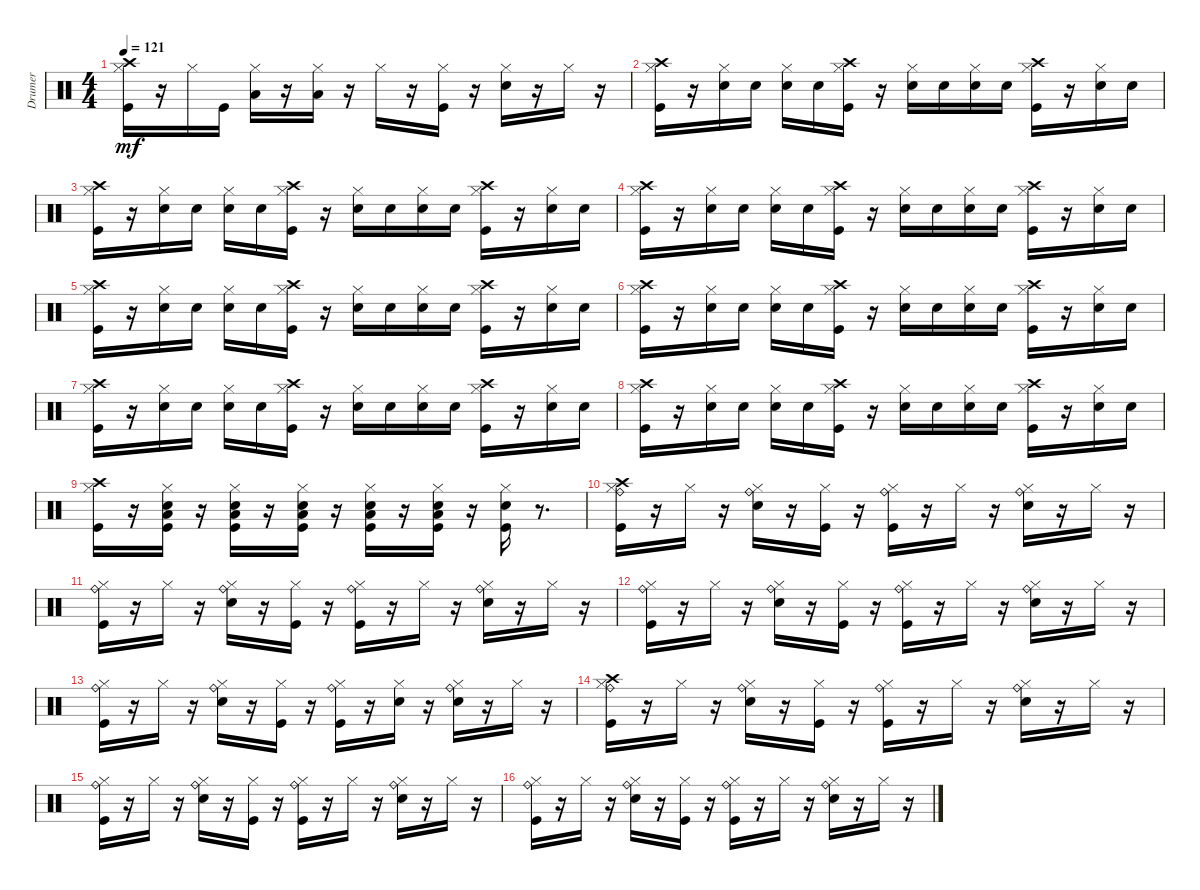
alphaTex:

\track ("Drumer" "Drumer") {instrument percussion}
\staff {score}
\articulation defaults
\ts (4 4)
\tempo 121
\clef neutral
\ks c
("Hi-Hat (closed)" "Kick (hit)" "Crash high (hit)").16{dy mf} r.16 "Hi-Hat (closed)".16 "Kick (hit)".16 ("Hi-Hat (closed)" "Low Tom (hit)").16 r.16 ("Hi-Hat (closed)" "Low Floor Tom (hit)").16 r.16 "Hi-Hat (closed)".16 r.16 ("Hi-Hat (closed)" "Kick (hit)").16 r.16 ("Hi-Hat (closed)" "Snare (hit) 2").16 r.16 "Hi-Hat (closed)".16 r.16 |
("Hi-Hat (closed)" "Kick (hit)" "Crash high (hit)").16 r.16 ("Hi-Hat (closed)" "Snare (hit) 2").16 "Snare (hit) 2".16 ("Hi-Hat (closed)" "Snare (hit) 2").16 "Snare (hit) 2".16 ("Hi-Hat (closed)" "Crash high (hit)" "Kick (hit)").16 r.16 ("Hi-Hat (closed)" "Snare (hit) 2").16 "Snare (hit) 2".16 ("Hi-Hat (closed)" "Snare (hit) 2").16 "Snare (hit) 2".16 ("Hi-Hat (closed)" "Kick (hit)" "Crash high (hit)").16 r.16 ("Hi-Hat (closed)" "Snare (hit) 2").16 "Snare (hit) 2".16 |
("Hi-Hat (closed)" "Kick (hit)" "Crash high (hit)").16 r.16 ("Hi-Hat (closed)" "Snare (hit) 2").16 "Snare (hit) 2".16 ("Hi-Hat (closed)" "Snare (hit) 2").16 "Snare (hit) 2".16 ("Hi-Hat (closed)" "Crash high (hit)" "Kick (hit)").16 r.16 ("Hi-Hat (closed)" "Snare (hit) 2").16 "Snare (hit) 2".16 ("Hi-Hat (closed)" "Snare (hit) 2").16 "Snare (hit) 2".16 ("Hi-Hat (closed)" "Kick (hit)" "Crash high (hit)").16 r.16 ("Hi-Hat (closed)" "Snare (hit) 2").16 "Snare (hit) 2".16 |
("Hi-Hat (closed)" "Crash high (hit)" "Kick (hit)").16 r.16 ("Hi-Hat (closed)" "Snare (hit) 2").16 "Snare (hit) 2".16 ("Hi-Hat (closed)" "Snare (hit) 2").16 "Snare (hit) 2".16 ("Hi-Hat (closed)" "Crash high (hit)" "Kick (hit)").16 r.16 ("Hi-Hat (closed)" "Snare (hit) 2").16 "Snare (hit) 2".16 ("Hi-Hat (closed)" "Snare (hit) 2").16 "Snare (hit) 2".16 ("Hi-Hat (closed)" "Kick (hit)" "Crash high (hit)").16 r.16 ("Hi-Hat (closed)" "Snare (hit) 2").16 "Snare (hit) 2".16 |
("Hi-Hat (closed)" "Kick (hit)" "Crash high (hit)").16 r.16 ("Hi-Hat (closed)" "Snare (hit) 2").16 "Snare (hit) 2".16 ("Hi-Hat (closed)" "Snare (hit) 2").16 "Snare (hit) 2".16 ("Hi-Hat (closed)" "Kick (hit)" "Crash high (hit)").16 r.16 ("Hi-Hat (closed)" "Snare (hit) 2").16 "Snare (hit) 2".16 ("Hi-Hat (closed)" "Snare (hit) 2").16 "Snare (hit) 2".16 ("Hi-Hat (closed)" "Crash high (hit)" "Kick (hit)").16 r.16 ("Hi-Hat (closed)" "Snare (hit) 2").16 "Snare (hit) 2".16 |
("Hi-Hat (closed)" "Kick (hit)" "Crash high (hit)").16 r.16 ("Hi-Hat (closed)" "Snare (hit) 2").16 "Snare (hit) 2".16 ("Hi-Hat (closed)" "Snare (hit) 2").16 "Snare (hit) 2".16 ("Hi-Hat (closed)" "Crash high (hit)" "Kick (hit)").16 r.16 ("Hi-Hat (closed)" "Snare (hit) 2").16 "Snare (hit) 2".16 ("Hi-Hat (closed)" "Snare (hit) 2").16 "Snare (hit) 2".16 ("Hi-Hat (closed)" "Kick (hit)" "Crash high (hit)").16 r.16 ("Hi-Hat (closed)" "Snare (hit) 2").16 "Snare (hit) 2".16 |
("Hi-Hat (closed)" "Kick (hit)" "Crash high (hit)").16 r.16 ("Hi-Hat (closed)" "Snare (hit) 2").16 "Snare (hit) 2".16 ("Hi-Hat (closed)" "Snare (hit) 2").16 "Snare (hit) 2".16 ("Hi-Hat (closed)" "Crash high (hit)" "Kick (hit)").16 r.16 ("Hi-Hat (closed)" "Snare (hit) 2").16 "Snare (hit) 2".16 ("Hi-Hat (closed)" "Snare (hit) 2").16 "Snare (hit) 2".16 ("Hi-Hat (closed)" "Crash high (hit)" "Kick (hit)").16 r.16 ("Hi-Hat (closed)" "Snare (hit) 2").16 "Snare (hit) 2".16 |
("Hi-Hat (closed)" "Kick (hit)" "Crash high (hit)").16 r.16 ("Hi-Hat (closed)" "Snare (hit) 2").16 "Snare (hit) 2".16 ("Hi-Hat (closed)" "Snare (hit) 2").16 "Snare (hit) 2".16 ("Hi-Hat (closed)" "Crash high (hit)" "Kick (hit)").16 r.16 ("Hi-Hat (closed)" "Snare (hit) 2").16 "Snare (hit) 2".16 ("Hi-Hat (closed)" "Snare (hit) 2").16 "Snare (hit) 2".16 ("Hi-Hat (closed)" "Crash high (hit)" "Kick (hit)").16 r.16 ("Hi-Hat (closed)" "Snare (hit) 2").16 "Snare (hit) 2".16 |
("Hi-Hat (closed)" "Kick (hit)" "Crash high (hit)").16 r.16 ("Hi-Hat (closed)" "Kick (hit)" "Snare (hit) 2" "Low Floor Tom (hit)").16 r.16 ("Hi-Hat (closed)" "Low Floor Tom (hit)" "Snare (hit) 2" "Kick (hit)").16 r.16 ("Hi-Hat (closed)" "Kick (hit)" "Low Floor Tom (hit)" "Snare (hit) 2").16 r.16 ("Hi-Hat (closed)" "Snare (hit) 2" "Kick (hit)" "Low Floor Tom (hit)").16 r.16 ("Hi-Hat (closed)" "Snare (hit) 2" "Kick (hit)" "Low Floor Tom (hit)").16 r.16 ("Hi-Hat (closed)" "Snare (hit) 2" "Kick (hit)").16 r.8{d} |
("Hi-Hat (closed)" "Ride (bell)" "Crash high (hit)" "Kick (hit)").16 r.16 "Hi-Hat (closed)".16 r.16 ("Hi-Hat (closed)" "Ride (bell)" "Snare (hit) 2").16 r.16 ("Hi-Hat (closed)" "Kick (hit)").16 r.16 ("Hi-Hat (closed)" "Ride (bell)" "Kick (hit)").16 r.16 "Hi-Hat (closed)".16 r.16 ("Hi-Hat (closed)" "Ride (bell)" "Snare (hit) 2").16 r.16 "Hi-Hat (closed)".16 r.16 |
("Hi-Hat (closed)" "Ride (bell)" "Kick (hit)").16 r.16 "Hi-Hat (closed)".16 r.16 ("Hi-Hat (closed)" "Ride (bell)" "Snare (hit) 2").16 r.16 ("Hi-Hat (closed)" "Kick (hit)").16 r.16 ("Hi-Hat (closed)" "Ride (bell)" "Kick (hit)").16 r.16 "Hi-Hat (closed)".16 r.16 ("Hi-Hat (closed)" "Ride (bell)" "Snare (hit) 2").16 r.16 "Hi-Hat (closed)".16 r.16 |
("Hi-Hat (closed)" "Ride (bell)" "Kick (hit)").16 r.16 "Hi-Hat (closed)".16 r.16 ("Hi-Hat (closed)" "Ride (bell)" "Snare (hit) 2").16 r.16 ("Hi-Hat (closed)" "Kick (hit)").16 r.16 ("Hi-Hat (closed)" "Ride (bell)" "Kick (hit)").16 r.16 "Hi-Hat (closed)".16 r.16 ("Hi-Hat (closed)" "Ride (bell)" "Snare (hit) 2").16 r.16 "Hi-Hat (closed)".16 r.16 |
("Hi-Hat (closed)" "Ride (bell)" "Kick (hit)").16 r.16 "Hi-Hat (closed)".16 r.16 ("Hi-Hat (closed)" "Ride (bell)" "Snare (hit) 2").16 r.16 ("Hi-Hat (closed)" "Kick (hit)").16 r.16 ("Hi-Hat (closed)" "Ride (bell)" "Kick (hit)").16 r.16 ("Hi-Hat (closed)" "Snare (hit) 2").16 r.16 ("Hi-Hat (closed)" "Ride (bell)" "Snare (hit) 2").16 r.16 "Hi-Hat (closed)".16 r.16 |
("Hi-Hat (closed)" "Ride (bell)" "Kick (hit)" "Crash high (hit)").16 r.16 "Hi-Hat (closed)".16 r.16 ("Hi-Hat (closed)" "Ride (bell)" "Snare (hit) 2").16 r.16 ("Hi-Hat (closed)" "Kick (hit)").16 r.16 ("Hi-Hat (closed)" "Ride (bell)" "Kick (hit)").16 r.16 "Hi-Hat (closed)".16 r.16 ("Hi-Hat (closed)" "Ride (bell)" "Snare (hit) 2").16 r.16 "Hi-Hat (closed)".16 r.16 |
("Hi-Hat (closed)" "Ride (bell)" "Kick (hit)").16 r.16 "Hi-Hat (closed)".16 r.16 ("Hi-Hat (closed)" "Ride (bell)" "Snare (hit) 2").16 r.16 ("Hi-Hat (closed)" "Kick (hit)").16 r.16 ("Hi-Hat (closed)" "Ride (bell)" "Kick (hit)").16 r.16 "Hi-Hat (closed)".16 r.16 ("Hi-Hat (closed)" "Ride (bell)" "Snare (hit) 2").16 r.16 "Hi-Hat (closed)".16 r.16 |
("Hi-Hat (closed)" "Ride (bell)" "Kick (hit)").16 r.16 "Hi-Hat (closed)".16 r.16 ("Hi-Hat (closed)" "Ride (bell)" "Snare (hit) 2").16 r.16 ("Hi-Hat (closed)" "Kick (hit)").16 r.16 ("Hi-Hat (closed)" "Ride (bell)" "Kick (hit)").16 r.16 "Hi-Hat (closed)".16 r.16 ("Hi-Hat (closed)" "Ride (bell)" "Snare (hit) 2").16 r.16 "Hi-Hat (closed)".16 r.16
